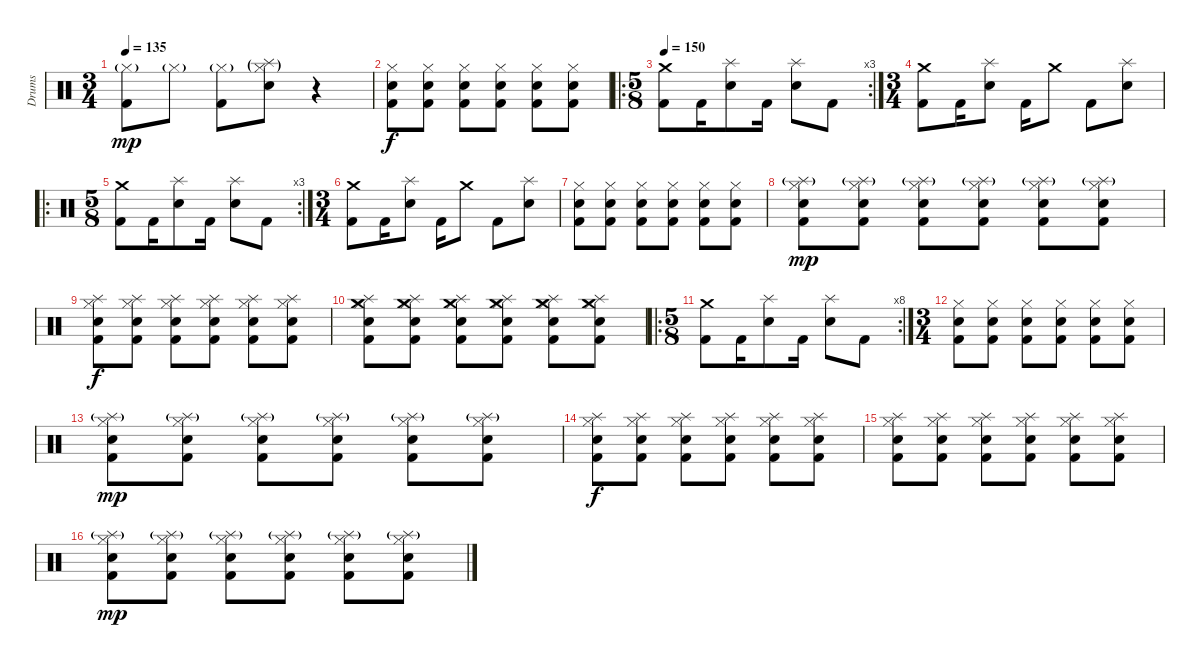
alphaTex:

\track ("Drums" "Drums") {instrument percussion}
\staff {score}
\articulation defaults
\ts (3 4)
\tempo 135
\clef neutral
\ks c
("Hi-Hat (closed)"{g} "Kick (hit) 2").8{dy mp} "Hi-Hat (closed)"{g}.8 ("Hi-Hat (closed)"{g} "Kick (hit) 2").8 ("Hi-Hat (closed)"{g} "Splash (hit)"{g} "Electric Snare (hit)").8 r.4 |
("Hi-Hat (closed)" "Electric Snare (hit)" "Kick (hit) 2").8{dy f} ("Hi-Hat (closed)" "Electric Snare (hit)" "Kick (hit) 2").8 ("Hi-Hat (closed)" "Electric Snare (hit)" "Kick (hit) 2").8 ("Hi-Hat (closed)" "Electric Snare (hit)" "Kick (hit) 2").8 ("Hi-Hat (closed)" "Electric Snare (hit)" "Kick (hit) 2").8 ("Hi-Hat (closed)" "Electric Snare (hit)" "Kick (hit) 2").8 |
\ro
\rc 3
\ts (5 8)
\tempo 150
("Crash medium (hit)" "Kick (hit) 2").8 "Kick (hit) 2".16 ("Splash (hit)" "Electric Snare (hit)").8 "Kick (hit) 2".16 ("Splash (hit)" "Electric Snare (hit)").8 "Kick (hit) 2".8 |
\ts (3 4)
("Crash medium (hit)" "Kick (hit) 2").8 "Kick (hit) 2".16 ("Splash (hit)" "Electric Snare (hit)").8 "Kick (hit) 2".16 "Crash medium (hit)".8 "Kick (hit) 2".8 ("Splash (hit)" "Electric Snare (hit)").8 |
\ro
\rc 3
\ts (5 8)
("Crash medium (hit)" "Kick (hit) 2").8 "Kick (hit) 2".16 ("Splash (hit)" "Electric Snare (hit)").8 "Kick (hit) 2".16 ("Splash (hit)" "Electric Snare (hit)").8 "Kick (hit) 2".8 |
\ts (3 4)
("Crash medium (hit)" "Kick (hit) 2").8 "Kick (hit) 2".16 ("Splash (hit)" "Electric Snare (hit)").8 "Kick (hit) 2".16 "Crash medium (hit)".8 "Kick (hit) 2".8 ("Splash (hit)" "Electric Snare (hit)").8 |
("Hi-Hat (closed)" "Electric Snare (hit)" "Kick (hit) 2").8 ("Hi-Hat (closed)" "Electric Snare (hit)" "Kick (hit) 2").8 ("Hi-Hat (closed)" "Electric Snare (hit)" "Kick (hit) 2").8 ("Hi-Hat (closed)" "Electric Snare (hit)" "Kick (hit) 2").8 ("Hi-Hat (closed)" "Electric Snare (hit)" "Kick (hit) 2").8 ("Hi-Hat (closed)" "Electric Snare (hit)" "Kick (hit) 2").8 |
("Hi-Hat (closed)" "Splash (hit)"{g} "Electric Snare (hit)" "Kick (hit) 2").8{dy mp} ("Hi-Hat (closed)" "Splash (hit)"{g} "Electric Snare (hit)" "Kick (hit) 2").8 ("Hi-Hat (closed)" "Splash (hit)"{g} "Electric Snare (hit)" "Kick (hit) 2").8 ("Hi-Hat (closed)" "Splash (hit)"{g} "Electric Snare (hit)" "Kick (hit) 2").8 ("Hi-Hat (closed)" "Splash (hit)"{g} "Electric Snare (hit)" "Kick (hit) 2").8 ("Hi-Hat (closed)" "Splash (hit)"{g} "Electric Snare (hit)" "Kick (hit) 2").8 |
("Hi-Hat (closed)" "Splash (hit)" "Electric Snare (hit)" "Kick (hit) 2").8{dy f} ("Hi-Hat (closed)" "Splash (hit)" "Electric Snare (hit)" "Kick (hit) 2").8 ("Hi-Hat (closed)" "Splash (hit)" "Electric Snare (hit)" "Kick (hit) 2").8 ("Hi-Hat (closed)" "Splash (hit)" "Electric Snare (hit)" "Kick (hit) 2").8 ("Hi-Hat (closed)" "Splash (hit)" "Electric Snare (hit)" "Kick (hit) 2").8 ("Hi-Hat (closed)" "Splash (hit)" "Electric Snare (hit)" "Kick (hit) 2").8 |
("Hi-Hat (closed)" "Splash (hit)" "Crash medium (hit)" "Electric Snare (hit)" "Kick (hit) 2").8 ("Hi-Hat (closed)" "Splash (hit)" "Crash medium (hit)" "Electric Snare (hit)" "Kick (hit) 2").8 ("Hi-Hat (closed)" "Splash (hit)" "Crash medium (hit)" "Electric Snare (hit)" "Kick (hit) 2").8 ("Hi-Hat (closed)" "Splash (hit)" "Crash medium (hit)" "Electric Snare (hit)" "Kick (hit) 2").8 ("Hi-Hat (closed)" "Splash (hit)" "Crash medium (hit)" "Electric Snare (hit)" "Kick (hit) 2").8 ("Hi-Hat (closed)" "Splash (hit)" "Crash medium (hit)" "Electric Snare (hit)" "Kick (hit) 2").8 |
\ro
\rc 8
\ts (5 8)
("Crash medium (hit)" "Kick (hit) 2").8 "Kick (hit) 2".16 ("Splash (hit)" "Electric Snare (hit)").8 "Kick (hit) 2".16 ("Splash (hit)" "Electric Snare (hit)").8 "Kick (hit) 2".8 |
\ts (3 4)
("Hi-Hat (closed)" "Electric Snare (hit)" "Kick (hit) 2").8 ("Hi-Hat (closed)" "Electric Snare (hit)" "Kick (hit) 2").8 ("Hi-Hat (closed)" "Electric Snare (hit)" "Kick (hit) 2").8 ("Hi-Hat (closed)" "Electric Snare (hit)" "Kick (hit) 2").8 ("Hi-Hat (closed)" "Electric Snare (hit)" "Kick (hit) 2").8 ("Hi-Hat (closed)" "Electric Snare (hit)" "Kick (hit) 2").8 |
("Hi-Hat (closed)" "Splash (hit)"{g} "Electric Snare (hit)" "Kick (hit) 2").8{dy mp} ("Hi-Hat (closed)" "Splash (hit)"{g} "Electric Snare (hit)" "Kick (hit) 2").8 ("Hi-Hat (closed)" "Splash (hit)"{g} "Electric Snare (hit)" "Kick (hit) 2").8 ("Hi-Hat (closed)" "Splash (hit)"{g} "Electric Snare (hit)" "Kick (hit) 2").8 ("Hi-Hat (closed)" "Splash (hit)"{g} "Electric Snare (hit)" "Kick (hit) 2").8 ("Hi-Hat (closed)" "Splash (hit)"{g} "Electric Snare (hit)" "Kick (hit) 2").8 |
("Hi-Hat (closed)" "Splash (hit)" "Electric Snare (hit)" "Kick (hit) 2").8{dy f} ("Hi-Hat (closed)" "Splash (hit)" "Electric Snare (hit)" "Kick (hit) 2").8 ("Hi-Hat (closed)" "Splash (hit)" "Electric Snare (hit)" "Kick (hit) 2").8 ("Hi-Hat (closed)" "Splash (hit)" "Electric Snare (hit)" "Kick (hit) 2").8 ("Hi-Hat (closed)" "Splash (hit)" "Electric Snare (hit)" "Kick (hit) 2").8 ("Hi-Hat (closed)" "Splash (hit)" "Electric Snare (hit)" "Kick (hit) 2").8 |
("Hi-Hat (closed)" "Splash (hit)" "Electric Snare (hit)" "Kick (hit) 2").8 ("Hi-Hat (closed)" "Splash (hit)" "Electric Snare (hit)" "Kick (hit) 2").8 ("Hi-Hat (closed)" "Splash (hit)" "Electric Snare (hit)" "Kick (hit) 2").8 ("Hi-Hat (closed)" "Splash (hit)" "Electric Snare (hit)" "Kick (hit) 2").8 ("Hi-Hat (closed)" "Splash (hit)" "Electric Snare (hit)" "Kick (hit) 2").8 ("Hi-Hat (closed)" "Splash (hit)" "Electric Snare (hit)" "Kick (hit) 2").8 |
("Hi-Hat (closed)" "Splash (hit)"{g} "Electric Snare (hit)" "Kick (hit) 2").8{dy mp} ("Hi-Hat (closed)" "Splash (hit)"{g} "Electric Snare (hit)" "Kick (hit) 2").8 ("Hi-Hat (closed)" "Splash (hit)"{g} "Electric Snare (hit)" "Kick (hit) 2").8 ("Hi-Hat (closed)" "Splash (hit)"{g} "Electric Snare (hit)" "Kick (hit) 2").8 ("Hi-Hat (closed)" "Splash (hit)"{g} "Electric Snare (hit)" "Kick (hit) 2").8 ("Hi-Hat (closed)" "Splash (hit)"{g} "Electric Snare (hit)" "Kick (hit) 2").8
